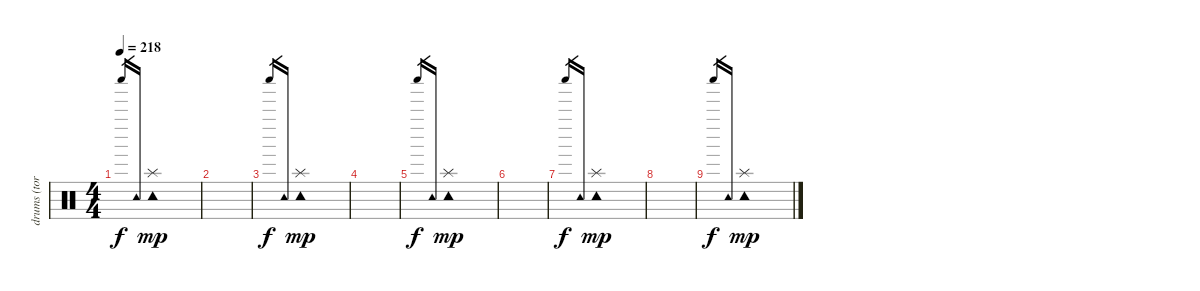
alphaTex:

\track ("drums (tora)" "drums (tor") {instrument percussion}
\staff {score}
\articulation defaults
\ts (4 4)
\tempo 218
\clef neutral
\ks c "Shaker (hit)".16{gr dy f} "Tambourine (hit)".16{gr}
("Tambourine (hit)" "Splash (hit)").1{dy mp balance 12} |
|
"Shaker (hit)".16{gr dy f} "Tambourine (hit)".16{gr} ("Tambourine (hit)" "Splash (hit)").1{dy mp volume 10 balance 10} |
|
"Shaker (hit)".16{gr dy f} "Tambourine (hit)".16{gr} ("Tambourine (hit)" "Splash (hit)").1{dy mp volume 8 balance 7} |
|
"Shaker (hit)".16{gr dy f} "Tambourine (hit)".16{gr} ("Tambourine (hit)" "Splash (hit)").1{dy mp volume 6 balance 4} |
|
"Shaker (hit)".16{gr dy f} "Tambourine (hit)".16{gr} ("Tambourine (hit)" "Splash (hit)").1{dy mp volume 4 balance 0}
